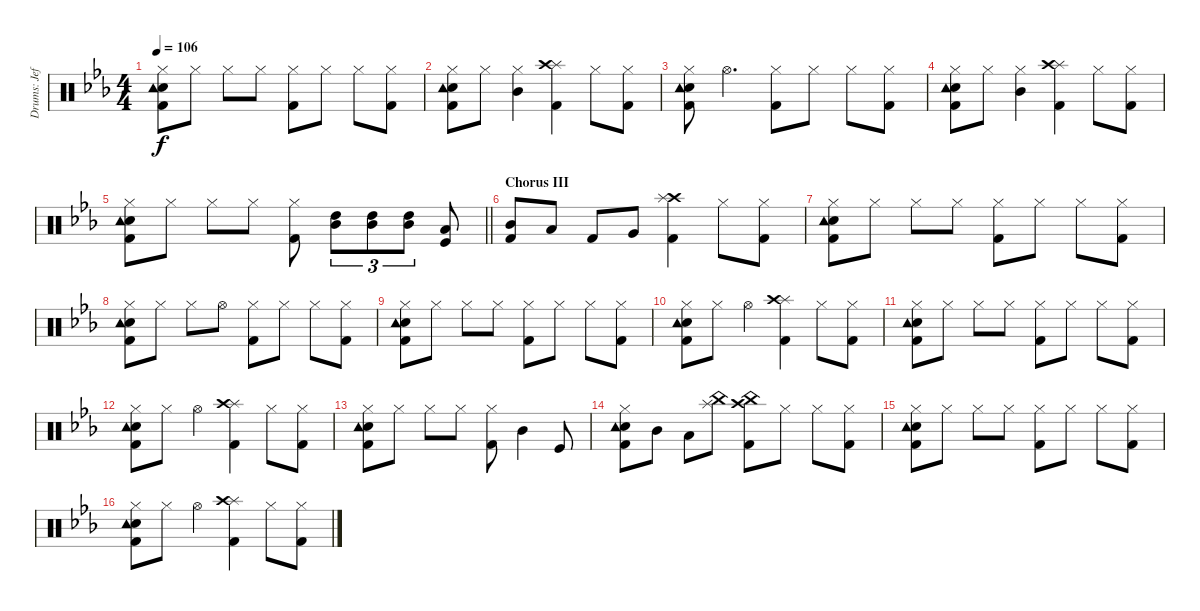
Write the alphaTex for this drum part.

\track ("Drums: Jeff" "Drums: Jef") {instrument percussion}
\staff {score}
\articulation defaults
\ts (4 4)
\tempo 106
\clef neutral
\ks eb
("Hi-Hat (closed)" "Snare (hit) 2" "Tambourine (hit)" "Kick (hit) 2").8{dy f} "Hi-Hat (closed)".8 "Hi-Hat (closed)".8 "Hi-Hat (closed)".8 ("Hi-Hat (closed)" "Kick (hit) 2").8 "Hi-Hat (closed)".8 "Hi-Hat (closed)".8 ("Hi-Hat (closed)" "Kick (hit) 2").8 |
("Hi-Hat (closed)" "Snare (hit) 2" "Tambourine (hit)" "Kick (hit) 2").8 "Hi-Hat (closed)".8 ("Hi-Hat (closed)" "Mid Tom (hit)").4 ("Splash (hit)" "Crash high (hit)" "Kick (hit) 2").4 "Hi-Hat (closed)".8 ("Hi-Hat (closed)" "Kick (hit) 2").8 |
("Hi-Hat (closed)" "Snare (hit) 2" "Tambourine (hit)" "Kick (hit) 2").8 "Hi-Hat (open)".4{d} ("Hi-Hat (closed)" "Kick (hit) 2").8 "Hi-Hat (closed)".8 "Hi-Hat (closed)".8 ("Hi-Hat (closed)" "Kick (hit) 2").8 |
("Hi-Hat (closed)" "Snare (hit) 2" "Tambourine (hit)" "Kick (hit) 2").8 "Hi-Hat (closed)".8 ("Hi-Hat (closed)" "Mid Tom (hit)").4 ("Splash (hit)" "Crash high (hit)" "Kick (hit) 2").4 "Hi-Hat (closed)".8 ("Hi-Hat (closed)" "Kick (hit) 2").8 |
\barLineRight lightlight
("Hi-Hat (closed)" "Snare (hit) 2" "Tambourine (hit)" "Kick (hit) 2").8 "Hi-Hat (closed)".8 "Hi-Hat (closed)".8 "Hi-Hat (closed)".8 ("Hi-Hat (closed)" "Kick (hit) 2").8 ("High Tom (hit)" "Mid Tom (hit)").8{tu (3 2)} ("Mid Tom (hit)" "High Tom (hit)").8{tu (3 2)} ("High Tom (hit)" "Mid Tom (hit)").8{tu (3 2)} ("Low Tom (hit)" "Kick (hit)").8 |
\section ("" "Chorus III")
("Mid Tom (hit)" "Kick (hit) 2").8 "Low Tom (hit)".8 "Kick (hit) 2".8 "Very Low Tom (hit)".8 ("Crash high (hit)" "Splash (hit)" "Kick (hit) 2").4 "Hi-Hat (closed)".8 ("Hi-Hat (closed)" "Kick (hit) 2").8 |
("Hi-Hat (closed)" "Snare (hit) 2" "Tambourine (hit)" "Kick (hit) 2").8 "Hi-Hat (closed)".8 "Hi-Hat (closed)".8 "Hi-Hat (closed)".8 ("Hi-Hat (closed)" "Kick (hit) 2").8 "Hi-Hat (closed)".8 "Hi-Hat (closed)".8 ("Hi-Hat (closed)" "Kick (hit) 2").8 |
("Hi-Hat (closed)" "Snare (hit) 2" "Tambourine (hit)" "Kick (hit) 2").8 "Hi-Hat (closed)".8 "Hi-Hat (closed)".8 "Hi-Hat (open)".8 ("Hi-Hat (closed)" "Kick (hit) 2").8 "Hi-Hat (closed)".8 "Hi-Hat (closed)".8 ("Hi-Hat (closed)" "Kick (hit) 2").8 |
("Hi-Hat (closed)" "Snare (hit) 2" "Tambourine (hit)" "Kick (hit) 2").8 "Hi-Hat (closed)".8 "Hi-Hat (closed)".8 "Hi-Hat (closed)".8 ("Hi-Hat (closed)" "Kick (hit) 2").8 "Hi-Hat (closed)".8 "Hi-Hat (closed)".8 ("Hi-Hat (closed)" "Kick (hit) 2").8 |
("Hi-Hat (closed)" "Snare (hit) 2" "Tambourine (hit)" "Kick (hit) 2").8 "Hi-Hat (closed)".8 "Hi-Hat (open)".4 ("Splash (hit)" "Crash high (hit)" "Kick (hit) 2").4 "Hi-Hat (closed)".8 ("Hi-Hat (closed)" "Kick (hit) 2").8 |
("Hi-Hat (closed)" "Snare (hit) 2" "Tambourine (hit)" "Kick (hit) 2").8 "Hi-Hat (closed)".8 "Hi-Hat (closed)".8 "Hi-Hat (closed)".8 ("Hi-Hat (closed)" "Kick (hit) 2").8 "Hi-Hat (closed)".8 "Hi-Hat (closed)".8 ("Hi-Hat (closed)" "Kick (hit) 2").8 |
("Hi-Hat (closed)" "Snare (hit) 2" "Tambourine (hit)" "Kick (hit) 2").8 "Hi-Hat (closed)".8 "Hi-Hat (open)".4 ("Splash (hit)" "Crash high (hit)" "Kick (hit) 2").4 "Hi-Hat (closed)".8 ("Hi-Hat (closed)" "Kick (hit) 2").8 |
("Hi-Hat (closed)" "Snare (hit) 2" "Tambourine (hit)" "Kick (hit) 2").8 "Hi-Hat (closed)".8 "Hi-Hat (closed)".8 "Hi-Hat (closed)".8 ("Hi-Hat (closed)" "Kick (hit) 2").8 "Mid Tom (hit)".4 "Kick (hit)".8 |
("Hi-Hat (closed)" "Snare (hit) 2" "Tambourine (hit)" "Kick (hit) 2").8 "Mid Tom (hit)".8 "Low Tom (hit)".8 ("China (hit)" "Splash (hit)").8 ("China (hit)" "Crash high (hit)" "Kick (hit) 2").8 "Hi-Hat (closed)".8 "Hi-Hat (closed)".8 ("Hi-Hat (closed)" "Kick (hit) 2").8 |
("Hi-Hat (closed)" "Snare (hit) 2" "Tambourine (hit)" "Kick (hit) 2").8 "Hi-Hat (closed)".8 "Hi-Hat (closed)".8 "Hi-Hat (closed)".8 ("Hi-Hat (closed)" "Kick (hit) 2").8 "Hi-Hat (closed)".8 "Hi-Hat (closed)".8 ("Hi-Hat (closed)" "Kick (hit) 2").8 |
("Hi-Hat (closed)" "Snare (hit) 2" "Tambourine (hit)" "Kick (hit) 2").8 "Hi-Hat (closed)".8 "Hi-Hat (open)".4 ("Splash (hit)" "Crash high (hit)" "Kick (hit) 2").4 "Hi-Hat (closed)".8 ("Hi-Hat (closed)" "Kick (hit) 2").8
